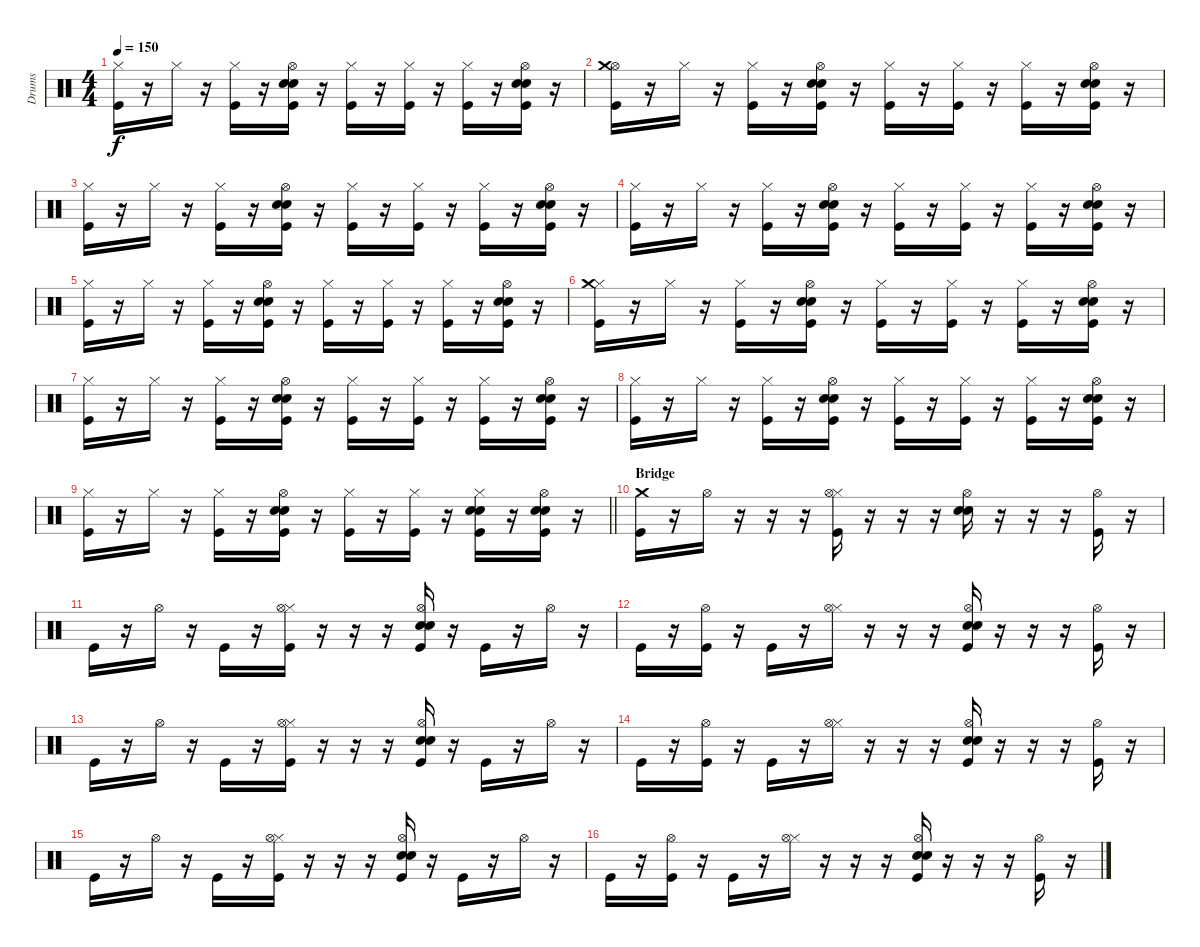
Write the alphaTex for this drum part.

\track ("Drums" "Drums") {instrument percussion}
\staff {score}
\articulation defaults
\ts (4 4)
\tempo 150
\clef neutral
\ks c
("Hi-Hat (closed)" "Kick (hit)").16{dy f} r.16 "Hi-Hat (closed)".16 r.16 ("Hi-Hat (closed)" "Kick (hit)").16 r.16 ("Hi-Hat (open)" "Electric Snare (hit)" "Snare (hit) 2" "Kick (hit)").16 r.16 ("Hi-Hat (closed)" "Kick (hit)").16 r.16 ("Hi-Hat (closed)" "Kick (hit)").16 r.16 ("Hi-Hat (closed)" "Kick (hit)").16 r.16 ("Hi-Hat (open)" "Electric Snare (hit)" "Snare (hit) 2" "Kick (hit)").16 r.16 |
("Hi-Hat (open)" "Kick (hit)" "Crash medium (hit)").16 r.16 "Hi-Hat (closed)".16 r.16 ("Hi-Hat (closed)" "Kick (hit)").16 r.16 ("Hi-Hat (open)" "Electric Snare (hit)" "Snare (hit) 2" "Kick (hit)").16 r.16 ("Hi-Hat (closed)" "Kick (hit)").16 r.16 ("Hi-Hat (closed)" "Kick (hit)").16 r.16 ("Hi-Hat (closed)" "Kick (hit)").16 r.16 ("Hi-Hat (open)" "Electric Snare (hit)" "Snare (hit) 2" "Kick (hit)").16 r.16 |
("Hi-Hat (closed)" "Kick (hit)").16 r.16 "Hi-Hat (closed)".16 r.16 ("Hi-Hat (closed)" "Kick (hit)").16 r.16 ("Hi-Hat (open)" "Electric Snare (hit)" "Snare (hit) 2" "Kick (hit)").16 r.16 ("Hi-Hat (closed)" "Kick (hit)").16 r.16 ("Hi-Hat (closed)" "Kick (hit)").16 r.16 ("Hi-Hat (closed)" "Kick (hit)").16 r.16 ("Hi-Hat (open)" "Electric Snare (hit)" "Snare (hit) 2" "Kick (hit)").16 r.16 |
("Hi-Hat (closed)" "Kick (hit)").16 r.16 "Hi-Hat (closed)".16 r.16 ("Hi-Hat (closed)" "Kick (hit)").16 r.16 ("Hi-Hat (open)" "Electric Snare (hit)" "Snare (hit) 2" "Kick (hit)").16 r.16 ("Hi-Hat (closed)" "Kick (hit)").16 r.16 ("Hi-Hat (closed)" "Kick (hit)").16 r.16 ("Hi-Hat (closed)" "Kick (hit)").16 r.16 ("Hi-Hat (open)" "Electric Snare (hit)" "Snare (hit) 2" "Kick (hit)").16 r.16 |
("Hi-Hat (closed)" "Kick (hit)").16 r.16 "Hi-Hat (closed)".16 r.16 ("Hi-Hat (closed)" "Kick (hit)").16 r.16 ("Hi-Hat (open)" "Electric Snare (hit)" "Snare (hit) 2" "Kick (hit)").16 r.16 ("Hi-Hat (closed)" "Kick (hit)").16 r.16 ("Hi-Hat (closed)" "Kick (hit)").16 r.16 ("Hi-Hat (closed)" "Kick (hit)").16 r.16 ("Hi-Hat (open)" "Electric Snare (hit)" "Snare (hit) 2" "Kick (hit)").16 r.16 |
("Hi-Hat (closed)" "Kick (hit)" "Crash medium (hit)").16 r.16 "Hi-Hat (closed)".16 r.16 ("Hi-Hat (closed)" "Kick (hit)").16 r.16 ("Hi-Hat (open)" "Electric Snare (hit)" "Snare (hit) 2" "Kick (hit)").16 r.16 ("Hi-Hat (closed)" "Kick (hit)").16 r.16 ("Hi-Hat (closed)" "Kick (hit)").16 r.16 ("Hi-Hat (closed)" "Kick (hit)").16 r.16 ("Hi-Hat (open)" "Electric Snare (hit)" "Snare (hit) 2" "Kick (hit)").16 r.16 |
("Hi-Hat (closed)" "Kick (hit)").16 r.16 "Hi-Hat (closed)".16 r.16 ("Hi-Hat (closed)" "Kick (hit)").16 r.16 ("Hi-Hat (open)" "Electric Snare (hit)" "Snare (hit) 2" "Kick (hit)").16 r.16 ("Hi-Hat (closed)" "Kick (hit)").16 r.16 ("Hi-Hat (closed)" "Kick (hit)").16 r.16 ("Hi-Hat (closed)" "Kick (hit)").16 r.16 ("Hi-Hat (open)" "Electric Snare (hit)" "Snare (hit) 2" "Kick (hit)").16 r.16 |
("Hi-Hat (closed)" "Kick (hit)").16 r.16 "Hi-Hat (closed)".16 r.16 ("Hi-Hat (closed)" "Kick (hit)").16 r.16 ("Hi-Hat (open)" "Electric Snare (hit)" "Snare (hit) 2" "Kick (hit)").16 r.16 ("Hi-Hat (closed)" "Kick (hit)").16 r.16 ("Hi-Hat (closed)" "Kick (hit)").16 r.16 ("Hi-Hat (closed)" "Kick (hit)").16 r.16 ("Hi-Hat (open)" "Electric Snare (hit)" "Snare (hit) 2" "Kick (hit)").16 r.16 |
\barLineRight lightlight
("Hi-Hat (closed)" "Kick (hit)").16 r.16 "Hi-Hat (closed)".16 r.16 ("Hi-Hat (closed)" "Kick (hit)").16 r.16 ("Hi-Hat (open)" "Electric Snare (hit)" "Snare (hit) 2" "Kick (hit)").16 r.16 ("Hi-Hat (closed)" "Kick (hit)").16 r.16 ("Hi-Hat (closed)" "Kick (hit)").16 r.16 ("Hi-Hat (closed)" "Electric Snare (hit)" "Snare (hit) 2" "Kick (hit)").16 r.16 ("Hi-Hat (open)" "Electric Snare (hit)" "Snare (hit) 2" "Kick (hit)").16 r.16 |
\section ("" "Bridge")
("Kick (hit)" "Crash medium (hit)").16 r.16 "Hi-Hat (open)".16 r.16 r.16 r.16 ("Hi-Hat (closed)" "Kick (hit)" "Hi-Hat (open)").16 r.16 r.16 r.16 ("Electric Snare (hit)" "Snare (hit) 2" "Hi-Hat (open)").16 r.16 r.16 r.16 ("Kick (hit)" "Hi-Hat (open)").16 r.16 |
"Kick (hit)".16 r.16 "Hi-Hat (open)".16 r.16 "Kick (hit)".16 r.16 ("Hi-Hat (closed)" "Kick (hit)" "Hi-Hat (open)").16 r.16 r.16 r.16 ("Electric Snare (hit)" "Snare (hit) 2" "Kick (hit)" "Hi-Hat (open)").16 r.16 "Kick (hit)".16 r.16 "Hi-Hat (open)".16 r.16 |
"Kick (hit)".16 r.16 ("Kick (hit)" "Hi-Hat (open)").16 r.16 "Kick (hit)".16 r.16 ("Hi-Hat (closed)" "Hi-Hat (open)").16 r.16 r.16 r.16 ("Electric Snare (hit)" "Snare (hit) 2" "Kick (hit)" "Hi-Hat (open)").16 r.16 r.16 r.16 ("Kick (hit)" "Hi-Hat (open)").16 r.16 |
"Kick (hit)".16 r.16 "Hi-Hat (open)".16 r.16 "Kick (hit)".16 r.16 ("Hi-Hat (closed)" "Kick (hit)" "Hi-Hat (open)").16 r.16 r.16 r.16 ("Electric Snare (hit)" "Snare (hit) 2" "Kick (hit)" "Hi-Hat (open)").16 r.16 "Kick (hit)".16 r.16 "Hi-Hat (open)".16 r.16 |
"Kick (hit)".16 r.16 ("Kick (hit)" "Hi-Hat (open)").16 r.16 "Kick (hit)".16 r.16 ("Hi-Hat (closed)" "Hi-Hat (open)").16 r.16 r.16 r.16 ("Electric Snare (hit)" "Snare (hit) 2" "Kick (hit)" "Hi-Hat (open)").16 r.16 r.16 r.16 ("Kick (hit)" "Hi-Hat (open)").16 r.16 |
"Kick (hit)".16 r.16 "Hi-Hat (open)".16 r.16 "Kick (hit)".16 r.16 ("Hi-Hat (closed)" "Kick (hit)" "Hi-Hat (open)").16 r.16 r.16 r.16 ("Electric Snare (hit)" "Snare (hit) 2" "Kick (hit)" "Hi-Hat (open)").16 r.16 "Kick (hit)".16 r.16 "Hi-Hat (open)".16 r.16 |
"Kick (hit)".16 r.16 ("Kick (hit)" "Hi-Hat (open)").16 r.16 "Kick (hit)".16 r.16 ("Hi-Hat (closed)" "Hi-Hat (open)").16 r.16 r.16 r.16 ("Electric Snare (hit)" "Snare (hit) 2" "Kick (hit)" "Hi-Hat (open)").16 r.16 r.16 r.16 ("Kick (hit)" "Hi-Hat (open)").16 r.16
